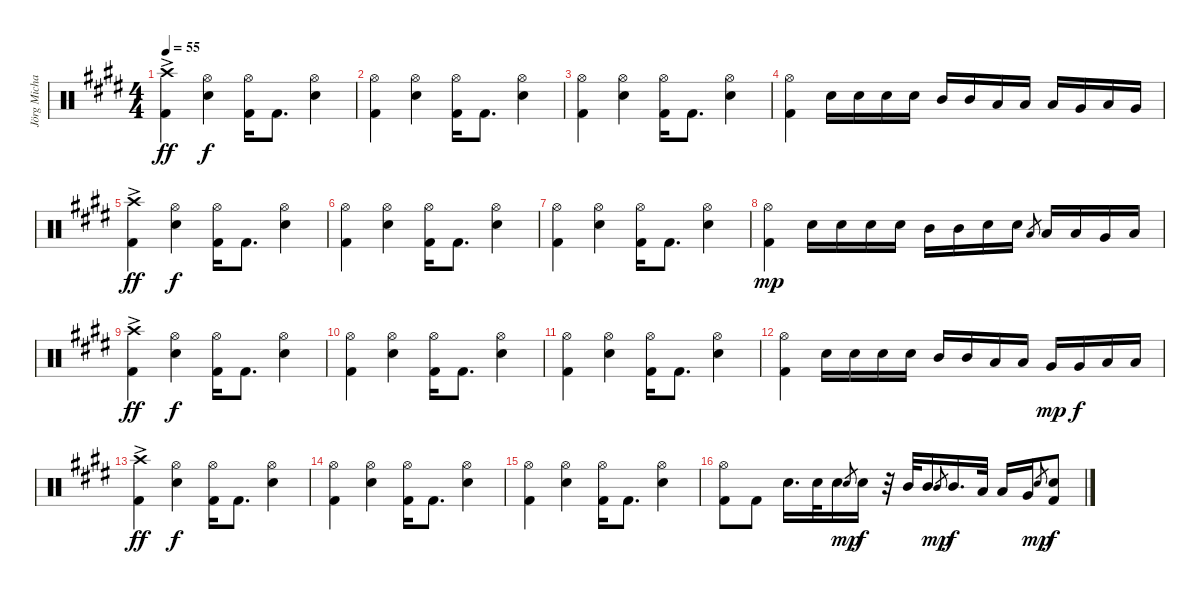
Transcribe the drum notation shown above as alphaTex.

\track ("Jörg Michael" "Jörg Micha") {instrument percussion}
\staff {score}
\articulation defaults
\ts (4 4)
\tempo 55
\clef neutral
\ks e
("Crash high (hit)"{ac} "Kick (hit) 2"{ac}).4{dy ff volume 13} ("Hi-Hat (open)" "Electric Snare (hit)").4{dy f} ("Hi-Hat (open)" "Kick (hit) 2").16 "Kick (hit) 2".8{d} ("Hi-Hat (open)" "Electric Snare (hit)").4 |
("Hi-Hat (open)" "Kick (hit) 2").4 ("Hi-Hat (open)" "Electric Snare (hit)").4 ("Hi-Hat (open)" "Kick (hit) 2").16 "Kick (hit) 2".8{d} ("Hi-Hat (open)" "Electric Snare (hit)").4 |
("Hi-Hat (open)" "Kick (hit) 2").4 ("Hi-Hat (open)" "Electric Snare (hit)").4 ("Hi-Hat (open)" "Kick (hit) 2").16 "Kick (hit) 2".8{d} ("Hi-Hat (open)" "Electric Snare (hit)").4 |
("Hi-Hat (open)" "Kick (hit) 2").4 "Electric Snare (hit)".16 "Electric Snare (hit)".16 "Electric Snare (hit)".16 "Electric Snare (hit)".16 "Mid Tom (hit)".16 "Mid Tom (hit)".16 "Low Tom (hit)".16 "Low Tom (hit)".16 "Low Tom (hit)".16 "Very Low Tom (hit)".16 "Low Tom (hit)".16 "Very Low Tom (hit)".16 |
("Crash high (hit)"{ac} "Kick (hit) 2"{ac}).4{dy ff volume 13} ("Hi-Hat (open)" "Electric Snare (hit)").4{dy f} ("Hi-Hat (open)" "Kick (hit) 2").16 "Kick (hit) 2".8{d} ("Hi-Hat (open)" "Electric Snare (hit)").4 |
("Hi-Hat (open)" "Kick (hit) 2").4 ("Hi-Hat (open)" "Electric Snare (hit)").4 ("Hi-Hat (open)" "Kick (hit) 2").16 "Kick (hit) 2".8{d} ("Hi-Hat (open)" "Electric Snare (hit)").4 |
("Hi-Hat (open)" "Kick (hit) 2").4 ("Hi-Hat (open)" "Electric Snare (hit)").4 ("Hi-Hat (open)" "Kick (hit) 2").16 "Kick (hit) 2".8{d} ("Hi-Hat (open)" "Electric Snare (hit)").4 |
("Hi-Hat (open)" "Kick (hit) 2").4{dy mp} "Electric Snare (hit)".16 "Electric Snare (hit)".16 "Electric Snare (hit)".16 "Electric Snare (hit)".16 "Mid Tom (hit)".16 "Mid Tom (hit)".16 "Electric Snare (hit)".16 "Electric Snare (hit)".16 "Low Tom (hit)".8{gr} "Low Tom (hit)".16 "Low Floor Tom (hit)".16 "Very Low Tom (hit)".16 "Low Floor Tom (hit)".16 |
("Crash high (hit)"{ac} "Kick (hit) 2"{ac}).4{dy ff volume 13} ("Hi-Hat (open)" "Electric Snare (hit)").4{dy f} ("Hi-Hat (open)" "Kick (hit) 2").16 "Kick (hit) 2".8{d} ("Hi-Hat (open)" "Electric Snare (hit)").4 |
("Hi-Hat (open)" "Kick (hit) 2").4 ("Hi-Hat (open)" "Electric Snare (hit)").4 ("Hi-Hat (open)" "Kick (hit) 2").16 "Kick (hit) 2".8{d} ("Hi-Hat (open)" "Electric Snare (hit)").4 |
("Hi-Hat (open)" "Kick (hit) 2").4 ("Hi-Hat (open)" "Electric Snare (hit)").4 ("Hi-Hat (open)" "Kick (hit) 2").16 "Kick (hit) 2".8{d} ("Hi-Hat (open)" "Electric Snare (hit)").4 |
("Hi-Hat (open)" "Kick (hit) 2").4 "Electric Snare (hit)".16 "Electric Snare (hit)".16 "Electric Snare (hit)".16 "Electric Snare (hit)".16 "Mid Tom (hit)".16 "Mid Tom (hit)".16 "Low Tom (hit)".16 "Low Tom (hit)".16 "Very Low Tom (hit)".16{dy mp} "Very Low Tom (hit)".16{dy f} "Low Floor Tom (hit)".16 "Low Floor Tom (hit)".16 |
("Crash high (hit)"{ac} "Kick (hit) 2"{ac}).4{dy ff volume 13} ("Hi-Hat (open)" "Electric Snare (hit)").4{dy f} ("Hi-Hat (open)" "Kick (hit) 2").16 "Kick (hit) 2".8{d} ("Hi-Hat (open)" "Electric Snare (hit)").4 |
("Hi-Hat (open)" "Kick (hit) 2").4 ("Hi-Hat (open)" "Electric Snare (hit)").4 ("Hi-Hat (open)" "Kick (hit) 2").16 "Kick (hit) 2".8{d} ("Hi-Hat (open)" "Electric Snare (hit)").4 |
("Hi-Hat (open)" "Kick (hit) 2").4 ("Hi-Hat (open)" "Electric Snare (hit)").4 ("Hi-Hat (open)" "Kick (hit) 2").16 "Kick (hit) 2".8{d} ("Hi-Hat (open)" "Electric Snare (hit)").4 |
("Hi-Hat (open)" "Kick (hit) 2").8 "Kick (hit) 2".8 "Electric Snare (hit)".16{d} "Electric Snare (hit)".32 "Electric Snare (hit)".16 "Electric Snare (hit)".8{gr dy mp} "Electric Snare (hit)".16{dy f} r.32 "Mid Tom (hit)".32 "Mid Tom (hit)".16 "Mid Tom (hit)".8{gr dy mp} "Mid Tom (hit)".16{d dy f} "Low Tom (hit)".32 "Low Tom (hit)".16 "Very Low Tom (hit)".16 "Electric Snare (hit)".8{gr dy mp} ("Electric Snare (hit)" "Kick (hit) 2").8{dy f}
